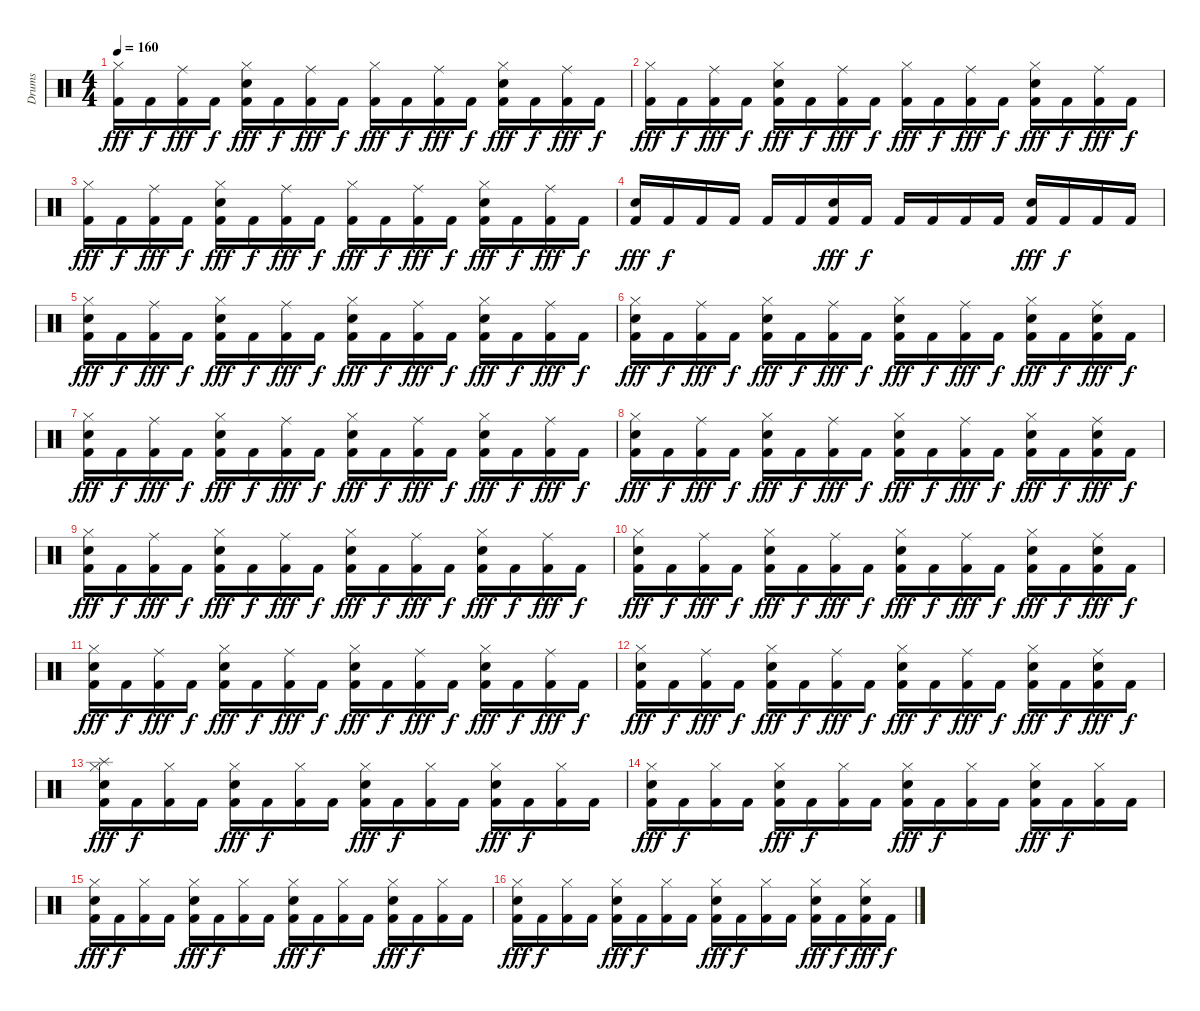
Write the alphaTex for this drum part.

\track ("Drums" "Drums") {instrument percussion}
\staff {score}
\articulation defaults
\ts (4 4)
\tempo 160
\clef neutral
\ks c
("Hi-Hat (closed)" "Kick (hit) 2").16{dy fff} "Kick (hit) 2".16{dy f} ("Ride (middle)" "Kick (hit) 2").16{dy fff} "Kick (hit) 2".16{dy f} ("Hi-Hat (closed)" "Snare (hit) 2" "Kick (hit) 2").16{dy fff} "Kick (hit) 2".16{dy f} ("Ride (middle)" "Kick (hit) 2").16{dy fff} "Kick (hit) 2".16{dy f} ("Hi-Hat (closed)" "Kick (hit) 2").16{dy fff} "Kick (hit) 2".16{dy f} ("Ride (middle)" "Kick (hit) 2").16{dy fff} "Kick (hit) 2".16{dy f} ("Hi-Hat (closed)" "Snare (hit) 2" "Kick (hit) 2").16{dy fff} "Kick (hit) 2".16{dy f} ("Ride (middle)" "Kick (hit) 2").16{dy fff} "Kick (hit) 2".16{dy f} |
("Hi-Hat (closed)" "Kick (hit) 2").16{dy fff} "Kick (hit) 2".16{dy f} ("Ride (middle)" "Kick (hit) 2").16{dy fff} "Kick (hit) 2".16{dy f} ("Hi-Hat (closed)" "Snare (hit) 2" "Kick (hit) 2").16{dy fff} "Kick (hit) 2".16{dy f} ("Ride (middle)" "Kick (hit) 2").16{dy fff} "Kick (hit) 2".16{dy f} ("Hi-Hat (closed)" "Kick (hit) 2").16{dy fff} "Kick (hit) 2".16{dy f} ("Ride (middle)" "Kick (hit) 2").16{dy fff} "Kick (hit) 2".16{dy f} ("Hi-Hat (closed)" "Snare (hit) 2" "Kick (hit) 2").16{dy fff} "Kick (hit) 2".16{dy f} ("Ride (middle)" "Kick (hit) 2").16{dy fff} "Kick (hit) 2".16{dy f} |
("Hi-Hat (closed)" "Kick (hit) 2").16{dy fff} "Kick (hit) 2".16{dy f} ("Ride (middle)" "Kick (hit) 2").16{dy fff} "Kick (hit) 2".16{dy f} ("Hi-Hat (closed)" "Snare (hit) 2" "Kick (hit) 2").16{dy fff} "Kick (hit) 2".16{dy f} ("Ride (middle)" "Kick (hit) 2").16{dy fff} "Kick (hit) 2".16{dy f} ("Hi-Hat (closed)" "Kick (hit) 2").16{dy fff} "Kick (hit) 2".16{dy f} ("Ride (middle)" "Kick (hit) 2").16{dy fff} "Kick (hit) 2".16{dy f} ("Hi-Hat (closed)" "Snare (hit) 2" "Kick (hit) 2").16{dy fff} "Kick (hit) 2".16{dy f} ("Ride (middle)" "Kick (hit) 2").16{dy fff} "Kick (hit) 2".16{dy f} |
("Snare (hit) 2" "Kick (hit) 2").16{dy fff} "Kick (hit) 2".16{dy f} "Kick (hit) 2".16 "Kick (hit) 2".16 "Kick (hit) 2".16 "Kick (hit) 2".16 ("Snare (hit) 2" "Kick (hit) 2").16{dy fff} "Kick (hit) 2".16{dy f} "Kick (hit) 2".16 "Kick (hit) 2".16 "Kick (hit) 2".16 "Kick (hit) 2".16 ("Snare (hit) 2" "Kick (hit) 2").16{dy fff} "Kick (hit) 2".16{dy f} "Kick (hit) 2".16 "Kick (hit) 2".16 |
("Hi-Hat (closed)" "Snare (hit) 2" "Kick (hit) 2").16{dy fff} "Kick (hit) 2".16{dy f} ("Ride (middle)" "Kick (hit) 2").16{dy fff} "Kick (hit) 2".16{dy f} ("Hi-Hat (closed)" "Snare (hit) 2" "Kick (hit) 2").16{dy fff} "Kick (hit) 2".16{dy f} ("Ride (middle)" "Kick (hit) 2").16{dy fff} "Kick (hit) 2".16{dy f} ("Hi-Hat (closed)" "Snare (hit) 2" "Kick (hit) 2").16{dy fff} "Kick (hit) 2".16{dy f} ("Ride (middle)" "Kick (hit) 2").16{dy fff} "Kick (hit) 2".16{dy f} ("Hi-Hat (closed)" "Snare (hit) 2" "Kick (hit) 2").16{dy fff} "Kick (hit) 2".16{dy f} ("Ride (middle)" "Kick (hit) 2").16{dy fff} "Kick (hit) 2".16{dy f} |
("Hi-Hat (closed)" "Snare (hit) 2" "Kick (hit) 2").16{dy fff} "Kick (hit) 2".16{dy f} ("Ride (middle)" "Kick (hit) 2").16{dy fff} "Kick (hit) 2".16{dy f} ("Hi-Hat (closed)" "Snare (hit) 2" "Kick (hit) 2").16{dy fff} "Kick (hit) 2".16{dy f} ("Ride (middle)" "Kick (hit) 2").16{dy fff} "Kick (hit) 2".16{dy f} ("Hi-Hat (closed)" "Snare (hit) 2" "Kick (hit) 2").16{dy fff} "Kick (hit) 2".16{dy f} ("Ride (middle)" "Kick (hit) 2").16{dy fff} "Kick (hit) 2".16{dy f} ("Hi-Hat (closed)" "Snare (hit) 2" "Kick (hit) 2").16{dy fff} "Kick (hit) 2".16{dy f} ("Ride (middle)" "Snare (hit) 2" "Kick (hit) 2").16{dy fff} "Kick (hit) 2".16{dy f} |
("Hi-Hat (closed)" "Snare (hit) 2" "Kick (hit) 2").16{dy fff} "Kick (hit) 2".16{dy f} ("Ride (middle)" "Kick (hit) 2").16{dy fff} "Kick (hit) 2".16{dy f} ("Hi-Hat (closed)" "Snare (hit) 2" "Kick (hit) 2").16{dy fff} "Kick (hit) 2".16{dy f} ("Ride (middle)" "Kick (hit) 2").16{dy fff} "Kick (hit) 2".16{dy f} ("Hi-Hat (closed)" "Snare (hit) 2" "Kick (hit) 2").16{dy fff} "Kick (hit) 2".16{dy f} ("Ride (middle)" "Kick (hit) 2").16{dy fff} "Kick (hit) 2".16{dy f} ("Hi-Hat (closed)" "Snare (hit) 2" "Kick (hit) 2").16{dy fff} "Kick (hit) 2".16{dy f} ("Ride (middle)" "Kick (hit) 2").16{dy fff} "Kick (hit) 2".16{dy f} |
("Hi-Hat (closed)" "Snare (hit) 2" "Kick (hit) 2").16{dy fff} "Kick (hit) 2".16{dy f} ("Ride (middle)" "Kick (hit) 2").16{dy fff} "Kick (hit) 2".16{dy f} ("Hi-Hat (closed)" "Snare (hit) 2" "Kick (hit) 2").16{dy fff} "Kick (hit) 2".16{dy f} ("Ride (middle)" "Kick (hit) 2").16{dy fff} "Kick (hit) 2".16{dy f} ("Hi-Hat (closed)" "Snare (hit) 2" "Kick (hit) 2").16{dy fff} "Kick (hit) 2".16{dy f} ("Ride (middle)" "Kick (hit) 2").16{dy fff} "Kick (hit) 2".16{dy f} ("Hi-Hat (closed)" "Snare (hit) 2" "Kick (hit) 2").16{dy fff} "Kick (hit) 2".16{dy f} ("Ride (middle)" "Snare (hit) 2" "Kick (hit) 2").16{dy fff} "Kick (hit) 2".16{dy f} |
("Hi-Hat (closed)" "Snare (hit) 2" "Kick (hit) 2").16{dy fff} "Kick (hit) 2".16{dy f} ("Ride (middle)" "Kick (hit) 2").16{dy fff} "Kick (hit) 2".16{dy f} ("Hi-Hat (closed)" "Snare (hit) 2" "Kick (hit) 2").16{dy fff} "Kick (hit) 2".16{dy f} ("Ride (middle)" "Kick (hit) 2").16{dy fff} "Kick (hit) 2".16{dy f} ("Hi-Hat (closed)" "Snare (hit) 2" "Kick (hit) 2").16{dy fff} "Kick (hit) 2".16{dy f} ("Ride (middle)" "Kick (hit) 2").16{dy fff} "Kick (hit) 2".16{dy f} ("Hi-Hat (closed)" "Snare (hit) 2" "Kick (hit) 2").16{dy fff} "Kick (hit) 2".16{dy f} ("Ride (middle)" "Kick (hit) 2").16{dy fff} "Kick (hit) 2".16{dy f} |
("Hi-Hat (closed)" "Snare (hit) 2" "Kick (hit) 2").16{dy fff} "Kick (hit) 2".16{dy f} ("Ride (middle)" "Kick (hit) 2").16{dy fff} "Kick (hit) 2".16{dy f} ("Hi-Hat (closed)" "Snare (hit) 2" "Kick (hit) 2").16{dy fff} "Kick (hit) 2".16{dy f} ("Ride (middle)" "Kick (hit) 2").16{dy fff} "Kick (hit) 2".16{dy f} ("Hi-Hat (closed)" "Snare (hit) 2" "Kick (hit) 2").16{dy fff} "Kick (hit) 2".16{dy f} ("Ride (middle)" "Kick (hit) 2").16{dy fff} "Kick (hit) 2".16{dy f} ("Hi-Hat (closed)" "Snare (hit) 2" "Kick (hit) 2").16{dy fff} "Kick (hit) 2".16{dy f} ("Ride (middle)" "Snare (hit) 2" "Kick (hit) 2").16{dy fff} "Kick (hit) 2".16{dy f} |
("Hi-Hat (closed)" "Snare (hit) 2" "Kick (hit) 2").16{dy fff} "Kick (hit) 2".16{dy f} ("Ride (middle)" "Kick (hit) 2").16{dy fff} "Kick (hit) 2".16{dy f} ("Hi-Hat (closed)" "Snare (hit) 2" "Kick (hit) 2").16{dy fff} "Kick (hit) 2".16{dy f} ("Ride (middle)" "Kick (hit) 2").16{dy fff} "Kick (hit) 2".16{dy f} ("Hi-Hat (closed)" "Snare (hit) 2" "Kick (hit) 2").16{dy fff} "Kick (hit) 2".16{dy f} ("Ride (middle)" "Kick (hit) 2").16{dy fff} "Kick (hit) 2".16{dy f} ("Hi-Hat (closed)" "Snare (hit) 2" "Kick (hit) 2").16{dy fff} "Kick (hit) 2".16{dy f} ("Ride (middle)" "Kick (hit) 2").16{dy fff} "Kick (hit) 2".16{dy f} |
("Hi-Hat (closed)" "Snare (hit) 2" "Kick (hit) 2").16{dy fff} "Kick (hit) 2".16{dy f} ("Ride (middle)" "Kick (hit) 2").16{dy fff} "Kick (hit) 2".16{dy f} ("Hi-Hat (closed)" "Snare (hit) 2" "Kick (hit) 2").16{dy fff} "Kick (hit) 2".16{dy f} ("Ride (middle)" "Kick (hit) 2").16{dy fff} "Kick (hit) 2".16{dy f} ("Hi-Hat (closed)" "Snare (hit) 2" "Kick (hit) 2").16{dy fff} "Kick (hit) 2".16{dy f} ("Ride (middle)" "Kick (hit) 2").16{dy fff} "Kick (hit) 2".16{dy f} ("Hi-Hat (closed)" "Snare (hit) 2" "Kick (hit) 2").16{dy fff} "Kick (hit) 2".16{dy f} ("Ride (middle)" "Snare (hit) 2" "Kick (hit) 2").16{dy fff} "Kick (hit) 2".16{dy f} |
("Splash (hit)" "Hi-Hat (closed)" "Snare (hit) 2" "Kick (hit) 2").16{dy fff} "Kick (hit) 2".16{dy f} ("Hi-Hat (closed)" "Kick (hit) 2").16 "Kick (hit) 2".16 ("Hi-Hat (closed)" "Snare (hit) 2" "Kick (hit) 2").16{dy fff} "Kick (hit) 2".16{dy f} ("Hi-Hat (closed)" "Kick (hit) 2").16 "Kick (hit) 2".16 ("Hi-Hat (closed)" "Snare (hit) 2" "Kick (hit) 2").16{dy fff} "Kick (hit) 2".16{dy f} ("Hi-Hat (closed)" "Kick (hit) 2").16 "Kick (hit) 2".16 ("Hi-Hat (closed)" "Snare (hit) 2" "Kick (hit) 2").16{dy fff} "Kick (hit) 2".16{dy f} ("Hi-Hat (closed)" "Kick (hit) 2").16 "Kick (hit) 2".16 |
("Hi-Hat (closed)" "Snare (hit) 2" "Kick (hit) 2").16{dy fff} "Kick (hit) 2".16{dy f} ("Hi-Hat (closed)" "Kick (hit) 2").16 "Kick (hit) 2".16 ("Hi-Hat (closed)" "Snare (hit) 2" "Kick (hit) 2").16{dy fff} "Kick (hit) 2".16{dy f} ("Hi-Hat (closed)" "Kick (hit) 2").16 "Kick (hit) 2".16 ("Hi-Hat (closed)" "Snare (hit) 2" "Kick (hit) 2").16{dy fff} "Kick (hit) 2".16{dy f} ("Hi-Hat (closed)" "Kick (hit) 2").16 "Kick (hit) 2".16 ("Hi-Hat (closed)" "Snare (hit) 2" "Kick (hit) 2").16{dy fff} "Kick (hit) 2".16{dy f} ("Hi-Hat (closed)" "Kick (hit) 2").16 "Kick (hit) 2".16 |
("Hi-Hat (closed)" "Snare (hit) 2" "Kick (hit) 2").16{dy fff} "Kick (hit) 2".16{dy f} ("Hi-Hat (closed)" "Kick (hit) 2").16 "Kick (hit) 2".16 ("Hi-Hat (closed)" "Snare (hit) 2" "Kick (hit) 2").16{dy fff} "Kick (hit) 2".16{dy f} ("Hi-Hat (closed)" "Kick (hit) 2").16 "Kick (hit) 2".16 ("Hi-Hat (closed)" "Snare (hit) 2" "Kick (hit) 2").16{dy fff} "Kick (hit) 2".16{dy f} ("Hi-Hat (closed)" "Kick (hit) 2").16 "Kick (hit) 2".16 ("Hi-Hat (closed)" "Snare (hit) 2" "Kick (hit) 2").16{dy fff} "Kick (hit) 2".16{dy f} ("Hi-Hat (closed)" "Kick (hit) 2").16 "Kick (hit) 2".16 |
("Hi-Hat (closed)" "Snare (hit) 2" "Kick (hit) 2").16{dy fff} "Kick (hit) 2".16{dy f} ("Hi-Hat (closed)" "Kick (hit) 2").16 "Kick (hit) 2".16 ("Hi-Hat (closed)" "Snare (hit) 2" "Kick (hit) 2").16{dy fff} "Kick (hit) 2".16{dy f} ("Hi-Hat (closed)" "Kick (hit) 2").16 "Kick (hit) 2".16 ("Hi-Hat (closed)" "Snare (hit) 2" "Kick (hit) 2").16{dy fff} "Kick (hit) 2".16{dy f} ("Hi-Hat (closed)" "Kick (hit) 2").16 "Kick (hit) 2".16 ("Hi-Hat (closed)" "Snare (hit) 2" "Kick (hit) 2").16{dy fff} "Kick (hit) 2".16{dy f} ("Hi-Hat (closed)" "Snare (hit) 2" "Kick (hit) 2").16{dy fff} "Kick (hit) 2".16{dy f}
